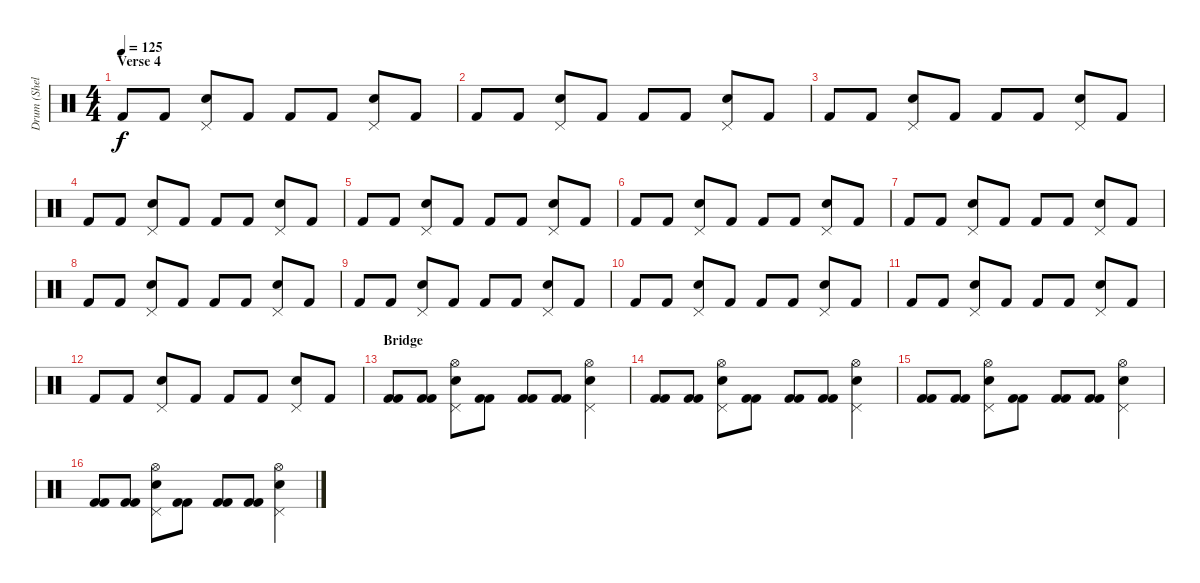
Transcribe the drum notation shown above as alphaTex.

\track ("Drum (Shelley)" "Drum (Shel") {instrument percussion}
\staff {score}
\articulation defaults
\ts (4 4)
\section ("" "Verse 4")
\tempo 125
\clef neutral
\ks c "Kick (hit) 2".8{dy f} "Kick (hit) 2".8
("Pedal Hi-Hat (hit)" "Electric Snare (hit)").8 "Kick (hit) 2".8 "Kick (hit) 2".8 "Kick (hit) 2".8 ("Pedal Hi-Hat (hit)" "Electric Snare (hit)").8 "Kick (hit) 2".8 |
"Kick (hit) 2".8 "Kick (hit) 2".8 ("Pedal Hi-Hat (hit)" "Electric Snare (hit)").8 "Kick (hit) 2".8 "Kick (hit) 2".8 "Kick (hit) 2".8 ("Pedal Hi-Hat (hit)" "Electric Snare (hit)").8 "Kick (hit) 2".8 |
"Kick (hit) 2".8 "Kick (hit) 2".8 ("Pedal Hi-Hat (hit)" "Electric Snare (hit)").8 "Kick (hit) 2".8 "Kick (hit) 2".8 "Kick (hit) 2".8 ("Pedal Hi-Hat (hit)" "Electric Snare (hit)").8 "Kick (hit) 2".8 |
"Kick (hit) 2".8 "Kick (hit) 2".8 ("Pedal Hi-Hat (hit)" "Electric Snare (hit)").8 "Kick (hit) 2".8 "Kick (hit) 2".8 "Kick (hit) 2".8 ("Pedal Hi-Hat (hit)" "Electric Snare (hit)").8 "Kick (hit) 2".8 |
"Kick (hit) 2".8 "Kick (hit) 2".8 ("Pedal Hi-Hat (hit)" "Electric Snare (hit)").8 "Kick (hit) 2".8 "Kick (hit) 2".8 "Kick (hit) 2".8 ("Pedal Hi-Hat (hit)" "Electric Snare (hit)").8 "Kick (hit) 2".8 |
"Kick (hit) 2".8 "Kick (hit) 2".8 ("Pedal Hi-Hat (hit)" "Electric Snare (hit)").8 "Kick (hit) 2".8 "Kick (hit) 2".8 "Kick (hit) 2".8 ("Pedal Hi-Hat (hit)" "Electric Snare (hit)").8 "Kick (hit) 2".8 |
"Kick (hit) 2".8 "Kick (hit) 2".8 ("Pedal Hi-Hat (hit)" "Electric Snare (hit)").8 "Kick (hit) 2".8 "Kick (hit) 2".8 "Kick (hit) 2".8 ("Pedal Hi-Hat (hit)" "Electric Snare (hit)").8 "Kick (hit) 2".8 |
"Kick (hit) 2".8 "Kick (hit) 2".8 ("Pedal Hi-Hat (hit)" "Electric Snare (hit)").8 "Kick (hit) 2".8 "Kick (hit) 2".8 "Kick (hit) 2".8 ("Pedal Hi-Hat (hit)" "Electric Snare (hit)").8 "Kick (hit) 2".8 |
"Kick (hit) 2".8 "Kick (hit) 2".8 ("Pedal Hi-Hat (hit)" "Electric Snare (hit)").8 "Kick (hit) 2".8 "Kick (hit) 2".8 "Kick (hit) 2".8 ("Pedal Hi-Hat (hit)" "Electric Snare (hit)").8 "Kick (hit) 2".8 |
"Kick (hit) 2".8 "Kick (hit) 2".8 ("Pedal Hi-Hat (hit)" "Electric Snare (hit)").8 "Kick (hit) 2".8 "Kick (hit) 2".8 "Kick (hit) 2".8 ("Pedal Hi-Hat (hit)" "Electric Snare (hit)").8 "Kick (hit) 2".8 |
"Kick (hit) 2".8 "Kick (hit) 2".8 ("Pedal Hi-Hat (hit)" "Electric Snare (hit)").8 "Kick (hit) 2".8 "Kick (hit) 2".8 "Kick (hit) 2".8 ("Pedal Hi-Hat (hit)" "Electric Snare (hit)").8 "Kick (hit) 2".8 |
"Kick (hit) 2".8 "Kick (hit) 2".8 ("Pedal Hi-Hat (hit)" "Electric Snare (hit)").8 "Kick (hit) 2".8 "Kick (hit) 2".8 "Kick (hit) 2".8 ("Pedal Hi-Hat (hit)" "Electric Snare (hit)").8 "Kick (hit) 2".8 |
\section ("" "Bridge")
("Kick (hit) 2" "Kick (hit) 2").8 ("Kick (hit) 2" "Kick (hit) 2").8 ("Pedal Hi-Hat (hit)" "Electric Snare (hit)" "Hi-Hat (open)").8 ("Kick (hit) 2" "Kick (hit) 2").8 ("Kick (hit) 2" "Kick (hit) 2").8 ("Kick (hit) 2" "Kick (hit) 2").8 ("Pedal Hi-Hat (hit)" "Electric Snare (hit)" "Hi-Hat (open)").4 |
("Kick (hit) 2" "Kick (hit) 2").8 ("Kick (hit) 2" "Kick (hit) 2").8 ("Pedal Hi-Hat (hit)" "Electric Snare (hit)" "Hi-Hat (open)").8 ("Kick (hit) 2" "Kick (hit) 2").8 ("Kick (hit) 2" "Kick (hit) 2").8 ("Kick (hit) 2" "Kick (hit) 2").8 ("Pedal Hi-Hat (hit)" "Electric Snare (hit)" "Hi-Hat (open)").4 |
("Kick (hit) 2" "Kick (hit) 2").8 ("Kick (hit) 2" "Kick (hit) 2").8 ("Pedal Hi-Hat (hit)" "Electric Snare (hit)" "Hi-Hat (open)").8 ("Kick (hit) 2" "Kick (hit) 2").8 ("Kick (hit) 2" "Kick (hit) 2").8 ("Kick (hit) 2" "Kick (hit) 2").8 ("Pedal Hi-Hat (hit)" "Electric Snare (hit)" "Hi-Hat (open)").4 |
("Kick (hit) 2" "Kick (hit) 2").8 ("Kick (hit) 2" "Kick (hit) 2").8 ("Pedal Hi-Hat (hit)" "Electric Snare (hit)" "Hi-Hat (open)").8 ("Kick (hit) 2" "Kick (hit) 2").8 ("Kick (hit) 2" "Kick (hit) 2").8 ("Kick (hit) 2" "Kick (hit) 2").8 ("Pedal Hi-Hat (hit)" "Electric Snare (hit)" "Hi-Hat (open)").4
